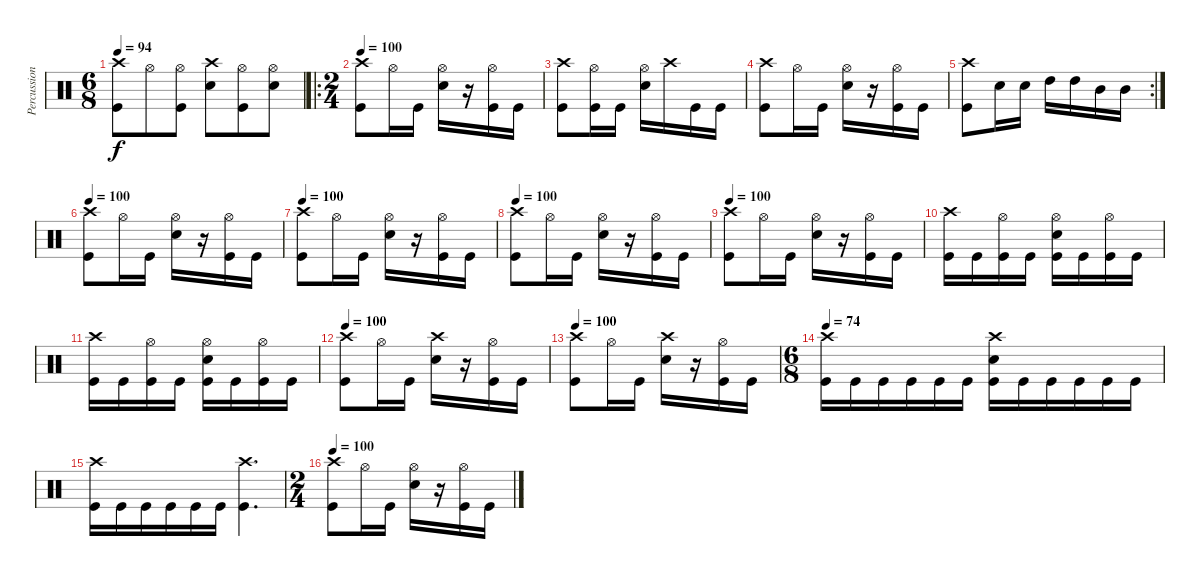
\track ("Percussioni" "Percussion") {instrument percussion}
\staff {score}
\articulation defaults
\ts (6 8)
\tempo 94
\clef neutral
\ks c
("Crash high (hit)" "Kick (hit)").8{dy f} "Hi-Hat (open)".8 ("Hi-Hat (open)" "Kick (hit)").8 ("Crash high (hit)" "Snare (hit) 2").8 ("Hi-Hat (open)" "Kick (hit)").8 ("Hi-Hat (open)" "Snare (hit) 2").8 |
\ro
\ts (2 4)
\tempo 100
("Crash high (hit)" "Kick (hit)").8 "Hi-Hat (open)".16 "Kick (hit)".16 ("Hi-Hat (open)" "Snare (hit) 2").16 r.16 ("Hi-Hat (open)" "Kick (hit)").16 "Kick (hit)".16 |
("Crash high (hit)" "Kick (hit)").8 ("Hi-Hat (open)" "Kick (hit)").16 "Kick (hit)".16 ("Hi-Hat (open)" "Snare (hit) 2").16 "Crash high (hit)".16 "Kick (hit)".16 "Kick (hit)".16 |
("Crash high (hit)" "Kick (hit)").8 "Hi-Hat (open)".16 "Kick (hit)".16 ("Hi-Hat (open)" "Snare (hit) 2").16 r.16 ("Hi-Hat (open)" "Kick (hit)").16 "Kick (hit)".16 |
\rc 2
("Crash high (hit)" "Kick (hit)").8 "Snare (hit) 2".16 "Snare (hit) 2".16 "High Tom (hit)".16 "High Tom (hit)".16 "Mid Tom (hit)".16 "Mid Tom (hit)".16 |
\tempo 100
("Crash high (hit)" "Kick (hit)").8 "Hi-Hat (open)".16 "Kick (hit)".16 ("Hi-Hat (open)" "Snare (hit) 2").16 r.16 ("Hi-Hat (open)" "Kick (hit)").16 "Kick (hit)".16 |
\tempo 100
("Crash high (hit)" "Kick (hit)").8 "Hi-Hat (open)".16 "Kick (hit)".16 ("Hi-Hat (open)" "Snare (hit) 2").16 r.16 ("Hi-Hat (open)" "Kick (hit)").16 "Kick (hit)".16 |
\tempo 100
("Crash high (hit)" "Kick (hit)").8 "Hi-Hat (open)".16 "Kick (hit)".16 ("Hi-Hat (open)" "Snare (hit) 2").16 r.16 ("Hi-Hat (open)" "Kick (hit)").16 "Kick (hit)".16 |
\tempo 100
("Crash high (hit)" "Kick (hit)").8 "Hi-Hat (open)".16 "Kick (hit)".16 ("Hi-Hat (open)" "Snare (hit) 2").16 r.16 ("Hi-Hat (open)" "Kick (hit)").16 "Kick (hit)".16 |
("Crash high (hit)" "Kick (hit)").16 "Kick (hit)".16 ("Hi-Hat (open)" "Kick (hit)").16 "Kick (hit)".16 ("Hi-Hat (open)" "Snare (hit) 2" "Kick (hit)").16 "Kick (hit)".16 ("Hi-Hat (open)" "Kick (hit)").16 "Kick (hit)".16 |
("Crash high (hit)" "Kick (hit)").16 "Kick (hit)".16 ("Hi-Hat (open)" "Kick (hit)").16 "Kick (hit)".16 ("Hi-Hat (open)" "Snare (hit) 2" "Kick (hit)").16 "Kick (hit)".16 ("Hi-Hat (open)" "Kick (hit)").16 "Kick (hit)".16 |
\tempo 100
("Crash high (hit)" "Kick (hit)").8 "Hi-Hat (open)".16 "Kick (hit)".16 ("Crash high (hit)" "Snare (hit) 2").16 r.16 ("Hi-Hat (open)" "Kick (hit)").16 "Kick (hit)".16 |
\tempo 100
("Crash high (hit)" "Kick (hit)").8 "Hi-Hat (open)".16 "Kick (hit)".16 ("Crash high (hit)" "Snare (hit) 2").16 r.16 ("Hi-Hat (open)" "Kick (hit)").16 "Kick (hit)".16 |
\ts (6 8)
\tempo 74
("Crash high (hit)" "Kick (hit)").16 "Kick (hit)".16 "Kick (hit)".16 "Kick (hit)".16 "Kick (hit)".16 "Kick (hit)".16 ("Crash high (hit)" "Snare (hit) 2" "Kick (hit)").16 "Kick (hit)".16 "Kick (hit)".16 "Kick (hit)".16 "Kick (hit)".16 "Kick (hit)".16 |
("Crash high (hit)" "Kick (hit)").16 "Kick (hit)".16 "Kick (hit)".16 "Kick (hit)".16 "Kick (hit)".16 "Kick (hit)".16 ("Crash high (hit)" "Kick (hit)").4{d} |
\ts (2 4)
\tempo 100
("Crash high (hit)" "Kick (hit)").8 "Hi-Hat (open)".16 "Kick (hit)".16 ("Hi-Hat (open)" "Snare (hit) 2").16 r.16 ("Hi-Hat (open)" "Kick (hit)").16 "Kick (hit)".16
